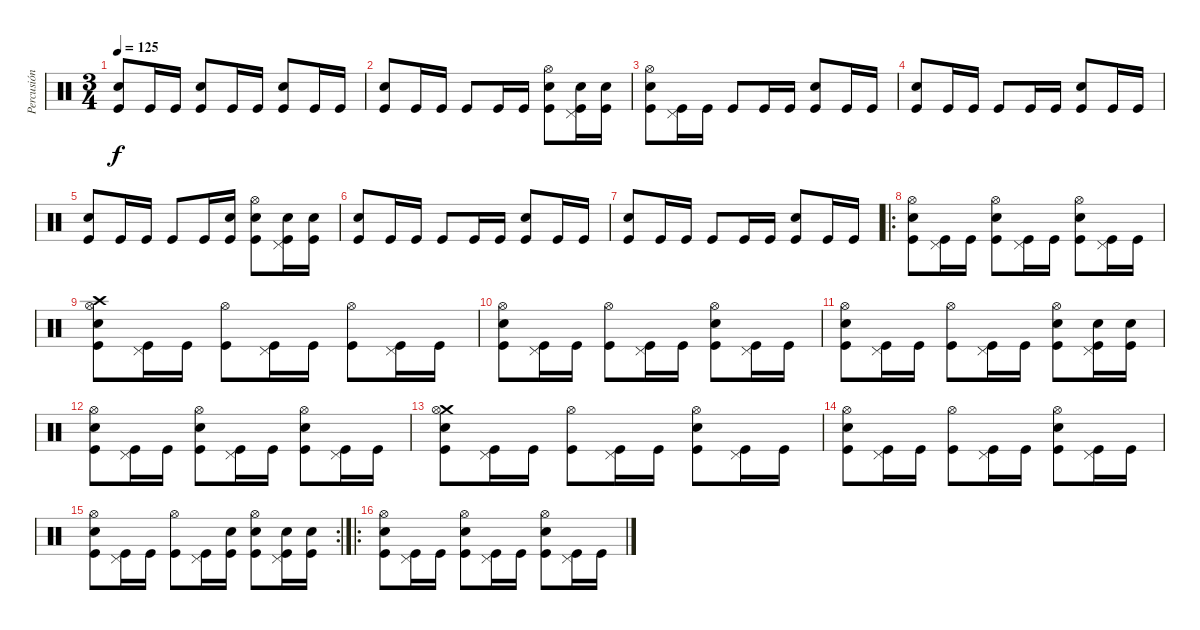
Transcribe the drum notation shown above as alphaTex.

\track ("Percusión" "Percusión") {instrument percussion}
\staff {score}
\articulation defaults
\ts (3 4)
\tempo 125
\clef neutral
\ks c
("Electric Snare (hit)" "Kick (hit)").8{dy f} "Kick (hit)".16 "Kick (hit)".16 ("Electric Snare (hit)" "Kick (hit)").8 "Kick (hit)".16 "Kick (hit)".16 ("Electric Snare (hit)" "Kick (hit)").8 "Kick (hit)".16 "Kick (hit)".16 |
("Electric Snare (hit)" "Kick (hit)").8 "Kick (hit)".16 "Kick (hit)".16 "Kick (hit)".8 "Kick (hit)".16 "Kick (hit)".16 ("Electric Snare (hit)" "Kick (hit)" "Hi-Hat (open)").8 ("Electric Snare (hit)" "Kick (hit)" "Pedal Hi-Hat (hit)").16 ("Electric Snare (hit)" "Kick (hit)").16 |
("Electric Snare (hit)" "Kick (hit)" "Hi-Hat (open)").8 ("Kick (hit)" "Pedal Hi-Hat (hit)").16 "Kick (hit)".16 "Kick (hit)".8 "Kick (hit)".16 "Kick (hit)".16 ("Electric Snare (hit)" "Kick (hit)").8 "Kick (hit)".16 "Kick (hit)".16 |
("Electric Snare (hit)" "Kick (hit)").8 "Kick (hit)".16 "Kick (hit)".16 "Kick (hit)".8 "Kick (hit)".16 "Kick (hit)".16 ("Electric Snare (hit)" "Kick (hit)").8 "Kick (hit)".16 "Kick (hit)".16 |
("Electric Snare (hit)" "Kick (hit)").8 "Kick (hit)".16 "Kick (hit)".16 "Kick (hit)".8 "Kick (hit)".16 ("Electric Snare (hit)" "Kick (hit)").16 ("Electric Snare (hit)" "Kick (hit)" "Hi-Hat (open)").8 ("Electric Snare (hit)" "Kick (hit)" "Pedal Hi-Hat (hit)").16 ("Electric Snare (hit)" "Kick (hit)").16 |
("Electric Snare (hit)" "Kick (hit)").8 "Kick (hit)".16 "Kick (hit)".16 "Kick (hit)".8 "Kick (hit)".16 "Kick (hit)".16 ("Electric Snare (hit)" "Kick (hit)").8 "Kick (hit)".16 "Kick (hit)".16 |
("Electric Snare (hit)" "Kick (hit)").8 "Kick (hit)".16 "Kick (hit)".16 "Kick (hit)".8 "Kick (hit)".16 "Kick (hit)".16 ("Electric Snare (hit)" "Kick (hit)").8 "Kick (hit)".16 "Kick (hit)".16 |
\ro
("Electric Snare (hit)" "Kick (hit)" "Hi-Hat (open)").8 ("Kick (hit)" "Pedal Hi-Hat (hit)").16 "Kick (hit)".16 ("Electric Snare (hit)" "Kick (hit)" "Hi-Hat (open)").8 ("Kick (hit)" "Pedal Hi-Hat (hit)").16 "Kick (hit)".16 ("Electric Snare (hit)" "Kick (hit)" "Hi-Hat (open)").8 ("Kick (hit)" "Pedal Hi-Hat (hit)").16 "Kick (hit)".16 |
("Crash high (hit)" "Electric Snare (hit)" "Kick (hit)" "Hi-Hat (open)").8 ("Kick (hit)" "Pedal Hi-Hat (hit)").16 "Kick (hit)".16 ("Kick (hit)" "Hi-Hat (open)").8 ("Kick (hit)" "Pedal Hi-Hat (hit)").16 "Kick (hit)".16 ("Kick (hit)" "Hi-Hat (open)").8 ("Kick (hit)" "Pedal Hi-Hat (hit)").16 "Kick (hit)".16 |
("Electric Snare (hit)" "Kick (hit)" "Hi-Hat (open)").8 ("Kick (hit)" "Pedal Hi-Hat (hit)").16 "Kick (hit)".16 ("Kick (hit)" "Hi-Hat (open)").8 ("Kick (hit)" "Pedal Hi-Hat (hit)").16 "Kick (hit)".16 ("Electric Snare (hit)" "Kick (hit)" "Hi-Hat (open)").8 ("Kick (hit)" "Pedal Hi-Hat (hit)").16 "Kick (hit)".16 |
("Electric Snare (hit)" "Kick (hit)" "Hi-Hat (open)").8 ("Kick (hit)" "Pedal Hi-Hat (hit)").16 "Kick (hit)".16 ("Kick (hit)" "Hi-Hat (open)").8 ("Kick (hit)" "Pedal Hi-Hat (hit)").16 "Kick (hit)".16 ("Electric Snare (hit)" "Kick (hit)" "Hi-Hat (open)").8 ("Electric Snare (hit)" "Kick (hit)" "Pedal Hi-Hat (hit)").16 ("Electric Snare (hit)" "Kick (hit)").16 |
("Electric Snare (hit)" "Kick (hit)" "Hi-Hat (open)").8 ("Kick (hit)" "Pedal Hi-Hat (hit)").16 "Kick (hit)".16 ("Electric Snare (hit)" "Kick (hit)" "Hi-Hat (open)").8 ("Kick (hit)" "Pedal Hi-Hat (hit)").16 "Kick (hit)".16 ("Electric Snare (hit)" "Kick (hit)" "Hi-Hat (open)").8 ("Kick (hit)" "Pedal Hi-Hat (hit)").16 "Kick (hit)".16 |
("Crash medium (hit)" "Electric Snare (hit)" "Kick (hit)" "Hi-Hat (open)").8 ("Kick (hit)" "Pedal Hi-Hat (hit)").16 "Kick (hit)".16 ("Kick (hit)" "Hi-Hat (open)").8 ("Kick (hit)" "Pedal Hi-Hat (hit)").16 "Kick (hit)".16 ("Electric Snare (hit)" "Kick (hit)" "Hi-Hat (open)").8 ("Kick (hit)" "Pedal Hi-Hat (hit)").16 "Kick (hit)".16 |
("Electric Snare (hit)" "Kick (hit)" "Hi-Hat (open)").8 ("Kick (hit)" "Pedal Hi-Hat (hit)").16 "Kick (hit)".16 ("Kick (hit)" "Hi-Hat (open)").8 ("Kick (hit)" "Pedal Hi-Hat (hit)").16 "Kick (hit)".16 ("Electric Snare (hit)" "Kick (hit)" "Hi-Hat (open)").8 ("Kick (hit)" "Pedal Hi-Hat (hit)").16 "Kick (hit)".16 |
\rc 2
("Electric Snare (hit)" "Kick (hit)" "Hi-Hat (open)").8 ("Kick (hit)" "Pedal Hi-Hat (hit)").16 "Kick (hit)".16 ("Kick (hit)" "Hi-Hat (open)").8 ("Kick (hit)" "Pedal Hi-Hat (hit)").16 ("Electric Snare (hit)" "Kick (hit)").16 ("Electric Snare (hit)" "Kick (hit)" "Hi-Hat (open)").8 ("Electric Snare (hit)" "Kick (hit)" "Pedal Hi-Hat (hit)").16 ("Electric Snare (hit)" "Kick (hit)").16 |
\ro
("Electric Snare (hit)" "Kick (hit)" "Hi-Hat (open)").8 ("Kick (hit)" "Pedal Hi-Hat (hit)").16 "Kick (hit)".16 ("Electric Snare (hit)" "Kick (hit)" "Hi-Hat (open)").8 ("Kick (hit)" "Pedal Hi-Hat (hit)").16 "Kick (hit)".16 ("Electric Snare (hit)" "Kick (hit)" "Hi-Hat (open)").8 ("Kick (hit)" "Pedal Hi-Hat (hit)").16 "Kick (hit)".16
